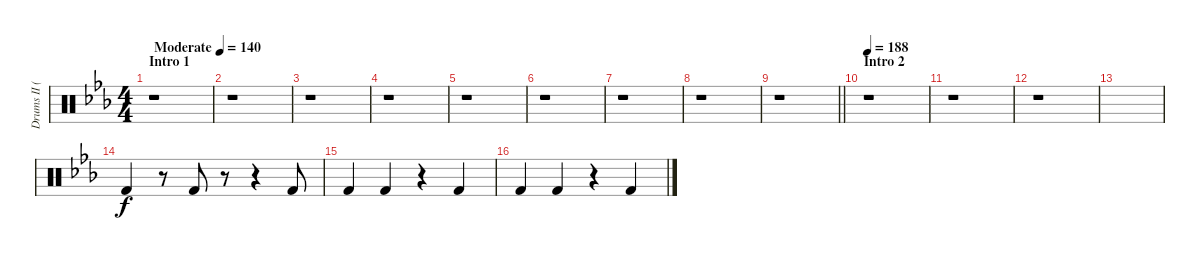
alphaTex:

\track ("Drums II (RUKA)" "Drums II (") {instrument percussion}
\staff {score}
\articulation defaults
\ts (4 4)
\section ("" "Intro 1")
\tempo (140 "Moderate")
\clef neutral
\ks eb
r.1{dy f} |
r.1 |
r.1 |
r.1 |
r.1 |
r.1 |
r.1 |
r.1 |
\barLineRight lightlight
r.1 |
\section ("" "Intro 2")
\tempo 188
r.1 |
r.1 |
r.1 |
|
"Kick (hit) 2".4 r.8 "Kick (hit) 2".8 r.8 r.4 "Kick (hit) 2".8 |
"Kick (hit) 2".4 "Kick (hit) 2".4 r.4 "Kick (hit) 2".4 |
"Kick (hit) 2".4 "Kick (hit) 2".4 r.4 "Kick (hit) 2".4
